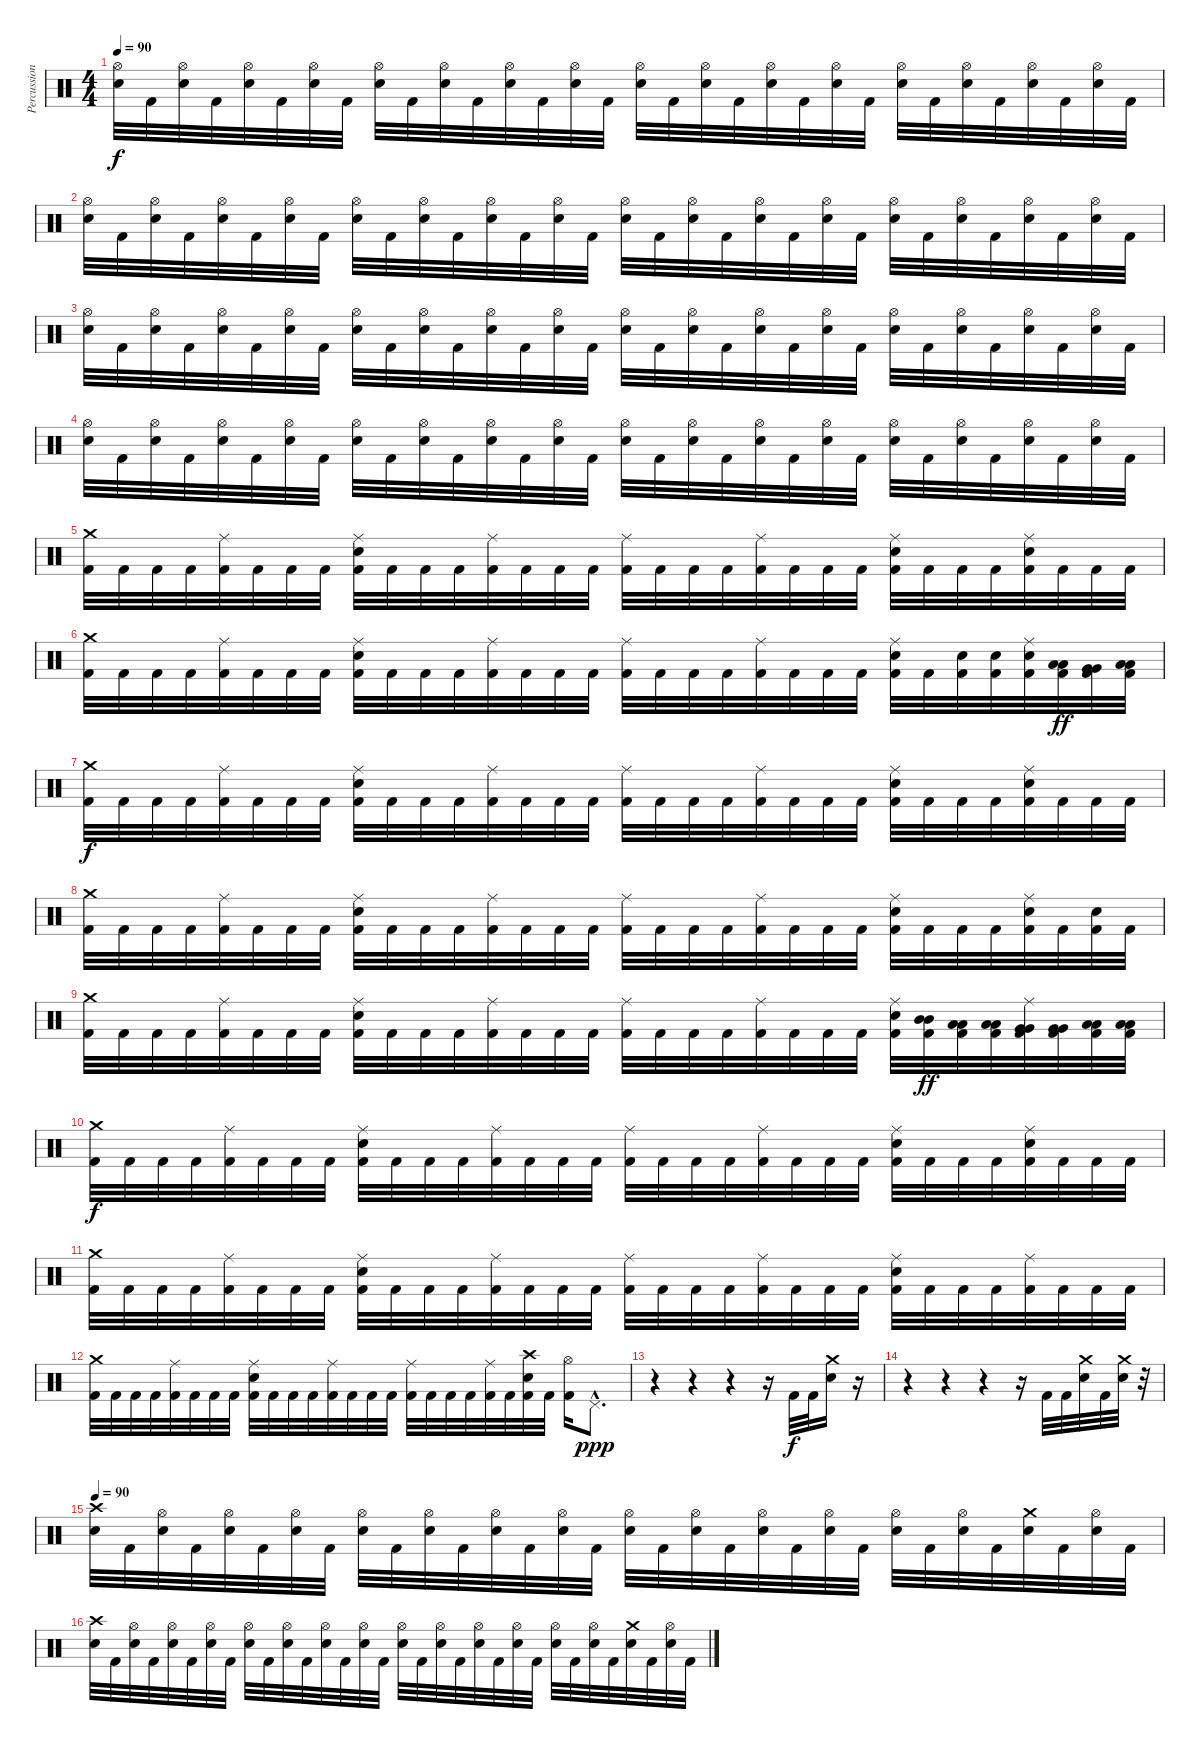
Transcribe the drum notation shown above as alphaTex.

\track ("Percussion" "Percussion") {instrument percussion}
\staff {score}
\articulation defaults
\ts (4 4)
\tempo 90
\clef neutral
\ks c
("Hi-Hat (open)" "Electric Snare (hit)").32{dy f} "Kick (hit) 2".32 ("Hi-Hat (open)" "Electric Snare (hit)").32 "Kick (hit) 2".32 ("Hi-Hat (open)" "Electric Snare (hit)").32 "Kick (hit) 2".32 ("Hi-Hat (open)" "Electric Snare (hit)").32 "Kick (hit) 2".32 ("Hi-Hat (open)" "Electric Snare (hit)").32 "Kick (hit) 2".32 ("Hi-Hat (open)" "Electric Snare (hit)").32 "Kick (hit) 2".32 ("Hi-Hat (open)" "Electric Snare (hit)").32 "Kick (hit) 2".32 ("Hi-Hat (open)" "Electric Snare (hit)").32 "Kick (hit) 2".32 ("Hi-Hat (open)" "Electric Snare (hit)").32 "Kick (hit) 2".32 ("Hi-Hat (open)" "Electric Snare (hit)").32 "Kick (hit) 2".32 ("Hi-Hat (open)" "Electric Snare (hit)").32 "Kick (hit) 2".32 ("Hi-Hat (open)" "Electric Snare (hit)").32 "Kick (hit) 2".32 ("Hi-Hat (open)" "Electric Snare (hit)").32 "Kick (hit) 2".32 ("Hi-Hat (open)" "Electric Snare (hit)").32 "Kick (hit) 2".32 ("Hi-Hat (open)" "Electric Snare (hit)").32 "Kick (hit) 2".32 ("Hi-Hat (open)" "Electric Snare (hit)").32 "Kick (hit) 2".32 |
("Hi-Hat (open)" "Electric Snare (hit)").32 "Kick (hit) 2".32 ("Hi-Hat (open)" "Electric Snare (hit)").32 "Kick (hit) 2".32 ("Hi-Hat (open)" "Electric Snare (hit)").32 "Kick (hit) 2".32 ("Hi-Hat (open)" "Electric Snare (hit)").32 "Kick (hit) 2".32 ("Hi-Hat (open)" "Electric Snare (hit)").32 "Kick (hit) 2".32 ("Hi-Hat (open)" "Electric Snare (hit)").32 "Kick (hit) 2".32 ("Hi-Hat (open)" "Electric Snare (hit)").32 "Kick (hit) 2".32 ("Hi-Hat (open)" "Electric Snare (hit)").32 "Kick (hit) 2".32 ("Hi-Hat (open)" "Electric Snare (hit)").32 "Kick (hit) 2".32 ("Hi-Hat (open)" "Electric Snare (hit)").32 "Kick (hit) 2".32 ("Hi-Hat (open)" "Electric Snare (hit)").32 "Kick (hit) 2".32 ("Hi-Hat (open)" "Electric Snare (hit)").32 "Kick (hit) 2".32 ("Hi-Hat (open)" "Electric Snare (hit)").32 "Kick (hit) 2".32 ("Hi-Hat (open)" "Electric Snare (hit)").32 "Kick (hit) 2".32 ("Hi-Hat (open)" "Electric Snare (hit)").32 "Kick (hit) 2".32 ("Hi-Hat (open)" "Electric Snare (hit)").32 "Kick (hit) 2".32 |
("Hi-Hat (open)" "Electric Snare (hit)").32 "Kick (hit) 2".32 ("Hi-Hat (open)" "Electric Snare (hit)").32 "Kick (hit) 2".32 ("Hi-Hat (open)" "Electric Snare (hit)").32 "Kick (hit) 2".32 ("Hi-Hat (open)" "Electric Snare (hit)").32 "Kick (hit) 2".32 ("Hi-Hat (open)" "Electric Snare (hit)").32 "Kick (hit) 2".32 ("Hi-Hat (open)" "Electric Snare (hit)").32 "Kick (hit) 2".32 ("Hi-Hat (open)" "Electric Snare (hit)").32 "Kick (hit) 2".32 ("Hi-Hat (open)" "Electric Snare (hit)").32 "Kick (hit) 2".32 ("Hi-Hat (open)" "Electric Snare (hit)").32 "Kick (hit) 2".32 ("Hi-Hat (open)" "Electric Snare (hit)").32 "Kick (hit) 2".32 ("Hi-Hat (open)" "Electric Snare (hit)").32 "Kick (hit) 2".32 ("Hi-Hat (open)" "Electric Snare (hit)").32 "Kick (hit) 2".32 ("Hi-Hat (open)" "Electric Snare (hit)").32 "Kick (hit) 2".32 ("Hi-Hat (open)" "Electric Snare (hit)").32 "Kick (hit) 2".32 ("Hi-Hat (open)" "Electric Snare (hit)").32 "Kick (hit) 2".32 ("Hi-Hat (open)" "Electric Snare (hit)").32 "Kick (hit) 2".32 |
("Hi-Hat (open)" "Electric Snare (hit)").32 "Kick (hit) 2".32 ("Hi-Hat (open)" "Electric Snare (hit)").32 "Kick (hit) 2".32 ("Hi-Hat (open)" "Electric Snare (hit)").32 "Kick (hit) 2".32 ("Hi-Hat (open)" "Electric Snare (hit)").32 "Kick (hit) 2".32 ("Hi-Hat (open)" "Electric Snare (hit)").32 "Kick (hit) 2".32 ("Hi-Hat (open)" "Electric Snare (hit)").32 "Kick (hit) 2".32 ("Hi-Hat (open)" "Electric Snare (hit)").32 "Kick (hit) 2".32 ("Hi-Hat (open)" "Electric Snare (hit)").32 "Kick (hit) 2".32 ("Hi-Hat (open)" "Electric Snare (hit)").32 "Kick (hit) 2".32 ("Hi-Hat (open)" "Electric Snare (hit)").32 "Kick (hit) 2".32 ("Hi-Hat (open)" "Electric Snare (hit)").32 "Kick (hit) 2".32 ("Hi-Hat (open)" "Electric Snare (hit)").32 "Kick (hit) 2".32 ("Hi-Hat (open)" "Electric Snare (hit)").32 "Kick (hit) 2".32 ("Hi-Hat (open)" "Electric Snare (hit)").32 "Kick (hit) 2".32 ("Hi-Hat (open)" "Electric Snare (hit)").32 "Kick (hit) 2".32 ("Hi-Hat (open)" "Electric Snare (hit)").32 "Kick (hit) 2".32 |
("Crash medium (hit)" "Kick (hit) 2").32 "Kick (hit) 2".32 "Kick (hit) 2".32 "Kick (hit) 2".32 ("Ride (middle)" "Kick (hit) 2").32 "Kick (hit) 2".32 "Kick (hit) 2".32 "Kick (hit) 2".32 ("Ride (middle)" "Electric Snare (hit)" "Kick (hit) 2").32 "Kick (hit) 2".32 "Kick (hit) 2".32 "Kick (hit) 2".32 ("Ride (middle)" "Kick (hit) 2").32 "Kick (hit) 2".32 "Kick (hit) 2".32 "Kick (hit) 2".32 ("Ride (middle)" "Kick (hit) 2").32 "Kick (hit) 2".32 "Kick (hit) 2".32 "Kick (hit) 2".32 ("Ride (middle)" "Kick (hit) 2").32 "Kick (hit) 2".32 "Kick (hit) 2".32 "Kick (hit) 2".32 ("Ride (middle)" "Electric Snare (hit)" "Kick (hit) 2").32 "Kick (hit) 2".32 "Kick (hit) 2".32 "Kick (hit) 2".32 ("Ride (middle)" "Electric Snare (hit)" "Kick (hit) 2").32 "Kick (hit) 2".32 "Kick (hit) 2".32 "Kick (hit) 2".32 |
("Crash medium (hit)" "Kick (hit) 2").32 "Kick (hit) 2".32 "Kick (hit) 2".32 "Kick (hit) 2".32 ("Ride (middle)" "Kick (hit) 2").32 "Kick (hit) 2".32 "Kick (hit) 2".32 "Kick (hit) 2".32 ("Ride (middle)" "Electric Snare (hit)" "Kick (hit) 2").32 "Kick (hit) 2".32 "Kick (hit) 2".32 "Kick (hit) 2".32 ("Ride (middle)" "Kick (hit) 2").32 "Kick (hit) 2".32 "Kick (hit) 2".32 "Kick (hit) 2".32 ("Ride (middle)" "Kick (hit) 2").32 "Kick (hit) 2".32 "Kick (hit) 2".32 "Kick (hit) 2".32 ("Ride (middle)" "Kick (hit) 2").32 "Kick (hit) 2".32 "Kick (hit) 2".32 "Kick (hit) 2".32 ("Ride (middle)" "Electric Snare (hit)" "Kick (hit) 2").32 "Kick (hit) 2".32 ("Electric Snare (hit)" "Kick (hit) 2").32 ("Electric Snare (hit)" "Kick (hit) 2").32 ("Ride (middle)" "Electric Snare (hit)" "Kick (hit) 2").32 ("Low Tom (hit)" "Low Tom (hit)" "Kick (hit) 2").32{dy ff} ("Very Low Tom (hit)" "Very Low Tom (hit)" "Kick (hit) 2").32 ("Low Floor Tom (hit)" "Low Floor Tom (hit)" "Kick (hit) 2").32 |
("Crash medium (hit)" "Kick (hit) 2").32{dy f} "Kick (hit) 2".32 "Kick (hit) 2".32 "Kick (hit) 2".32 ("Ride (middle)" "Kick (hit) 2").32 "Kick (hit) 2".32 "Kick (hit) 2".32 "Kick (hit) 2".32 ("Ride (middle)" "Electric Snare (hit)" "Kick (hit) 2").32 "Kick (hit) 2".32 "Kick (hit) 2".32 "Kick (hit) 2".32 ("Ride (middle)" "Kick (hit) 2").32 "Kick (hit) 2".32 "Kick (hit) 2".32 "Kick (hit) 2".32 ("Ride (middle)" "Kick (hit) 2").32 "Kick (hit) 2".32 "Kick (hit) 2".32 "Kick (hit) 2".32 ("Ride (middle)" "Kick (hit) 2").32 "Kick (hit) 2".32 "Kick (hit) 2".32 "Kick (hit) 2".32 ("Ride (middle)" "Electric Snare (hit)" "Kick (hit) 2").32 "Kick (hit) 2".32 "Kick (hit) 2".32 "Kick (hit) 2".32 ("Ride (middle)" "Electric Snare (hit)" "Kick (hit) 2").32 "Kick (hit) 2".32 "Kick (hit) 2".32 "Kick (hit) 2".32 |
("Crash medium (hit)" "Kick (hit) 2").32 "Kick (hit) 2".32 "Kick (hit) 2".32 "Kick (hit) 2".32 ("Ride (middle)" "Kick (hit) 2").32 "Kick (hit) 2".32 "Kick (hit) 2".32 "Kick (hit) 2".32 ("Ride (middle)" "Electric Snare (hit)" "Kick (hit) 2").32 "Kick (hit) 2".32 "Kick (hit) 2".32 "Kick (hit) 2".32 ("Ride (middle)" "Kick (hit) 2").32 "Kick (hit) 2".32 "Kick (hit) 2".32 "Kick (hit) 2".32 ("Ride (middle)" "Kick (hit) 2").32 "Kick (hit) 2".32 "Kick (hit) 2".32 "Kick (hit) 2".32 ("Ride (middle)" "Kick (hit) 2").32 "Kick (hit) 2".32 "Kick (hit) 2".32 "Kick (hit) 2".32 ("Ride (middle)" "Electric Snare (hit)" "Kick (hit) 2").32 "Kick (hit) 2".32 "Kick (hit) 2".32 "Kick (hit) 2".32 ("Ride (middle)" "Electric Snare (hit)" "Kick (hit) 2").32 "Kick (hit) 2".32 ("Electric Snare (hit)" "Kick (hit) 2").32 "Kick (hit) 2".32 |
("Crash medium (hit)" "Kick (hit) 2").32 "Kick (hit) 2".32 "Kick (hit) 2".32 "Kick (hit) 2".32 ("Ride (middle)" "Kick (hit) 2").32 "Kick (hit) 2".32 "Kick (hit) 2".32 "Kick (hit) 2".32 ("Ride (middle)" "Electric Snare (hit)" "Kick (hit) 2").32 "Kick (hit) 2".32 "Kick (hit) 2".32 "Kick (hit) 2".32 ("Ride (middle)" "Kick (hit) 2").32 "Kick (hit) 2".32 "Kick (hit) 2".32 "Kick (hit) 2".32 ("Ride (middle)" "Kick (hit) 2").32 "Kick (hit) 2".32 "Kick (hit) 2".32 "Kick (hit) 2".32 ("Ride (middle)" "Kick (hit) 2").32 "Kick (hit) 2".32 "Kick (hit) 2".32 "Kick (hit) 2".32 ("Ride (middle)" "Electric Snare (hit)" "Kick (hit) 2").32 ("Mid Tom (hit)" "Mid Tom (hit)" "Kick (hit) 2").32{dy ff} ("Low Tom (hit)" "Low Tom (hit)" "Kick (hit) 2").32 ("Low Tom (hit)" "Low Tom (hit)" "Kick (hit) 2").32 ("Ride (middle)" "Very Low Tom (hit)" "Very Low Tom (hit)" "Kick (hit) 2").32 ("Very Low Tom (hit)" "Very Low Tom (hit)" "Kick (hit) 2").32 ("Low Floor Tom (hit)" "Low Floor Tom (hit)" "Kick (hit) 2").32 ("Low Floor Tom (hit)" "Low Floor Tom (hit)" "Kick (hit) 2").32 |
("Crash medium (hit)" "Kick (hit) 2").32{dy f} "Kick (hit) 2".32 "Kick (hit) 2".32 "Kick (hit) 2".32 ("Ride (middle)" "Kick (hit) 2").32 "Kick (hit) 2".32 "Kick (hit) 2".32 "Kick (hit) 2".32 ("Ride (middle)" "Electric Snare (hit)" "Kick (hit) 2").32 "Kick (hit) 2".32 "Kick (hit) 2".32 "Kick (hit) 2".32 ("Ride (middle)" "Kick (hit) 2").32 "Kick (hit) 2".32 "Kick (hit) 2".32 "Kick (hit) 2".32 ("Ride (middle)" "Kick (hit) 2").32 "Kick (hit) 2".32 "Kick (hit) 2".32 "Kick (hit) 2".32 ("Ride (middle)" "Kick (hit) 2").32 "Kick (hit) 2".32 "Kick (hit) 2".32 "Kick (hit) 2".32 ("Ride (middle)" "Electric Snare (hit)" "Kick (hit) 2").32 "Kick (hit) 2".32 "Kick (hit) 2".32 "Kick (hit) 2".32 ("Ride (middle)" "Electric Snare (hit)" "Kick (hit) 2").32 "Kick (hit) 2".32 "Kick (hit) 2".32 "Kick (hit) 2".32 |
("Crash medium (hit)" "Kick (hit) 2").32 "Kick (hit) 2".32 "Kick (hit) 2".32 "Kick (hit) 2".32 ("Ride (middle)" "Kick (hit) 2").32 "Kick (hit) 2".32 "Kick (hit) 2".32 "Kick (hit) 2".32 ("Ride (middle)" "Electric Snare (hit)" "Kick (hit) 2").32 "Kick (hit) 2".32 "Kick (hit) 2".32 "Kick (hit) 2".32 ("Ride (middle)" "Kick (hit) 2").32 "Kick (hit) 2".32 "Kick (hit) 2".32 "Kick (hit) 2".32 ("Ride (middle)" "Kick (hit) 2").32 "Kick (hit) 2".32 "Kick (hit) 2".32 "Kick (hit) 2".32 ("Ride (middle)" "Kick (hit) 2").32 "Kick (hit) 2".32 "Kick (hit) 2".32 "Kick (hit) 2".32 ("Ride (middle)" "Electric Snare (hit)" "Kick (hit) 2").32 "Kick (hit) 2".32 "Kick (hit) 2".32 "Kick (hit) 2".32 ("Ride (middle)" "Kick (hit) 2").32 "Kick (hit) 2".32 "Kick (hit) 2".32 "Kick (hit) 2".32 |
("Crash medium (hit)" "Kick (hit) 2").32 "Kick (hit) 2".32 "Kick (hit) 2".32 "Kick (hit) 2".32 ("Ride (middle)" "Kick (hit) 2").32 "Kick (hit) 2".32 "Kick (hit) 2".32 "Kick (hit) 2".32 ("Ride (middle)" "Electric Snare (hit)" "Kick (hit) 2").32 "Kick (hit) 2".32 "Kick (hit) 2".32 "Kick (hit) 2".32 ("Ride (middle)" "Kick (hit) 2").32 "Kick (hit) 2".32 "Kick (hit) 2".32 "Kick (hit) 2".32 ("Ride (middle)" "Kick (hit) 2").32 "Kick (hit) 2".32 "Kick (hit) 2".32 "Kick (hit) 2".32 ("Ride (middle)" "Kick (hit) 2").32 "Kick (hit) 2".32 ("Crash high (hit)" "Electric Snare (hit)" "Kick (hit) 2").32 "Kick (hit) 2".32 ("Hi-Hat (open)" "Kick (hit) 2").16 "Pedal Hi-Hat (hit)"{hac}.8{d dy ppp} |
r.4 r.4 r.4 r.16 "Kick (hit) 2".32{dy f} "Kick (hit) 2".32 ("Crash medium (hit)" "Electric Snare (hit)").16 r.16 |
r.4 r.4 r.4 r.16 "Kick (hit) 2".32 "Kick (hit) 2".32 ("Crash medium (hit)" "Electric Snare (hit)").32 "Kick (hit) 2".32 ("Crash medium (hit)" "Electric Snare (hit)").32 r.32 |
\tempo 90
("Crash high (hit)" "Electric Snare (hit)").32 "Kick (hit) 2".32 ("Hi-Hat (open)" "Electric Snare (hit)").32 "Kick (hit) 2".32 ("Hi-Hat (open)" "Electric Snare (hit)").32 "Kick (hit) 2".32 ("Hi-Hat (open)" "Electric Snare (hit)").32 "Kick (hit) 2".32 ("Hi-Hat (open)" "Electric Snare (hit)").32 "Kick (hit) 2".32 ("Hi-Hat (open)" "Electric Snare (hit)").32 "Kick (hit) 2".32 ("Hi-Hat (open)" "Electric Snare (hit)").32 "Kick (hit) 2".32 ("Hi-Hat (open)" "Electric Snare (hit)").32 "Kick (hit) 2".32 ("Hi-Hat (open)" "Electric Snare (hit)").32 "Kick (hit) 2".32 ("Hi-Hat (open)" "Electric Snare (hit)").32 "Kick (hit) 2".32 ("Hi-Hat (open)" "Electric Snare (hit)").32 "Kick (hit) 2".32 ("Hi-Hat (open)" "Electric Snare (hit)").32 "Kick (hit) 2".32 ("Hi-Hat (open)" "Electric Snare (hit)").32 "Kick (hit) 2".32 ("Hi-Hat (open)" "Electric Snare (hit)").32 "Kick (hit) 2".32 ("Crash medium (hit)" "Electric Snare (hit)").32 "Kick (hit) 2".32 ("Hi-Hat (open)" "Electric Snare (hit)").32 "Kick (hit) 2".32 |
("Crash high (hit)" "Electric Snare (hit)").32 "Kick (hit) 2".32 ("Hi-Hat (open)" "Electric Snare (hit)").32 "Kick (hit) 2".32 ("Hi-Hat (open)" "Electric Snare (hit)").32 "Kick (hit) 2".32 ("Hi-Hat (open)" "Electric Snare (hit)").32 "Kick (hit) 2".32 ("Hi-Hat (open)" "Electric Snare (hit)").32 "Kick (hit) 2".32 ("Hi-Hat (open)" "Electric Snare (hit)").32 "Kick (hit) 2".32 ("Hi-Hat (open)" "Electric Snare (hit)").32 "Kick (hit) 2".32 ("Hi-Hat (open)" "Electric Snare (hit)").32 "Kick (hit) 2".32 ("Hi-Hat (open)" "Electric Snare (hit)").32 "Kick (hit) 2".32 ("Hi-Hat (open)" "Electric Snare (hit)").32 "Kick (hit) 2".32 ("Hi-Hat (open)" "Electric Snare (hit)").32 "Kick (hit) 2".32 ("Hi-Hat (open)" "Electric Snare (hit)").32 "Kick (hit) 2".32 ("Hi-Hat (open)" "Electric Snare (hit)").32 "Kick (hit) 2".32 ("Hi-Hat (open)" "Electric Snare (hit)").32 "Kick (hit) 2".32 ("Crash medium (hit)" "Electric Snare (hit)").32 "Kick (hit) 2".32 ("Hi-Hat (open)" "Electric Snare (hit)").32 "Kick (hit) 2".32
